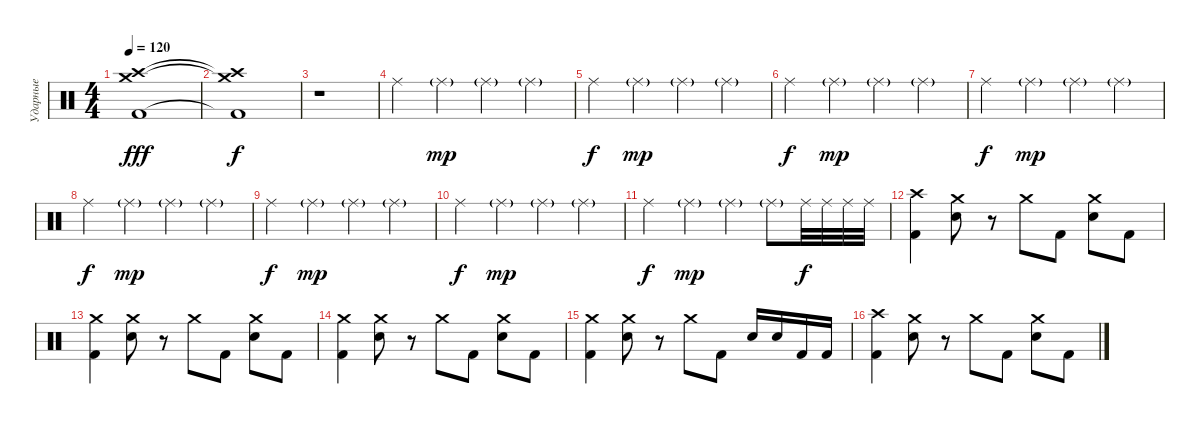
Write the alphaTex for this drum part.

\track ("Ударные" "Ударные") {instrument percussion}
\staff {score}
\articulation defaults
\ts (4 4)
\tempo 120
\clef neutral
\ks c
("Crash medium (hit)" "Crash high (hit)" "Kick (hit) 2").1{dy fff} |
("Crash medium (hit)"{t} "Crash high (hit)"{t} "Kick (hit) 2"{t}).1{dy f} |
r.1 |
"Ride (middle)".4 "Ride (middle)"{g}.4{dy mp} "Ride (middle)"{g}.4 "Ride (middle)"{g}.4 |
"Ride (middle)".4{dy f} "Ride (middle)"{g}.4{dy mp} "Ride (middle)"{g}.4 "Ride (middle)"{g}.4 |
"Ride (middle)".4{dy f} "Ride (middle)"{g}.4{dy mp} "Ride (middle)"{g}.4 "Ride (middle)"{g}.4 |
"Ride (middle)".4{dy f} "Ride (middle)"{g}.4{dy mp} "Ride (middle)"{g}.4 "Ride (middle)"{g}.4 |
"Ride (middle)".4{dy f} "Ride (middle)"{g}.4{dy mp} "Ride (middle)"{g}.4 "Ride (middle)"{g}.4 |
"Ride (middle)".4{dy f} "Ride (middle)"{g}.4{dy mp} "Ride (middle)"{g}.4 "Ride (middle)"{g}.4 |
"Ride (middle)".4{dy f} "Ride (middle)"{g}.4{dy mp} "Ride (middle)"{g}.4 "Ride (middle)"{g}.4 |
"Ride (middle)".4{dy f} "Ride (middle)"{g}.4{dy mp} "Ride (middle)"{g}.4 "Ride (middle)"{g}.8 "Ride (middle)".32{dy f} "Ride (middle)".32 "Ride (middle)".32 "Ride (middle)".32 |
("Crash high (hit)" "Kick (hit) 2").4 ("Crash medium (hit)" "Electric Snare (hit)").8 r.8 "Crash medium (hit)".8 "Kick (hit) 2".8 ("Crash medium (hit)" "Electric Snare (hit)").8 "Kick (hit) 2".8 |
("Crash medium (hit)" "Kick (hit) 2").4 ("Crash medium (hit)" "Electric Snare (hit)").8 r.8 "Crash medium (hit)".8 "Kick (hit) 2".8 ("Crash medium (hit)" "Electric Snare (hit)").8 "Kick (hit) 2".8 |
("Crash medium (hit)" "Kick (hit) 2").4 ("Crash medium (hit)" "Electric Snare (hit)").8 r.8 "Crash medium (hit)".8 "Kick (hit) 2".8 ("Crash medium (hit)" "Electric Snare (hit)").8 "Kick (hit) 2".8 |
("Crash medium (hit)" "Kick (hit) 2").4 ("Crash medium (hit)" "Electric Snare (hit)").8 r.8 "Crash medium (hit)".8 "Kick (hit) 2".8 "Electric Snare (hit)".16 "Electric Snare (hit)".16 "Kick (hit) 2".16 "Kick (hit) 2".16 |
("Crash high (hit)" "Kick (hit) 2").4 ("Crash medium (hit)" "Electric Snare (hit)").8 r.8 "Crash medium (hit)".8 "Kick (hit) 2".8 ("Crash medium (hit)" "Electric Snare (hit)").8 "Kick (hit) 2".8
